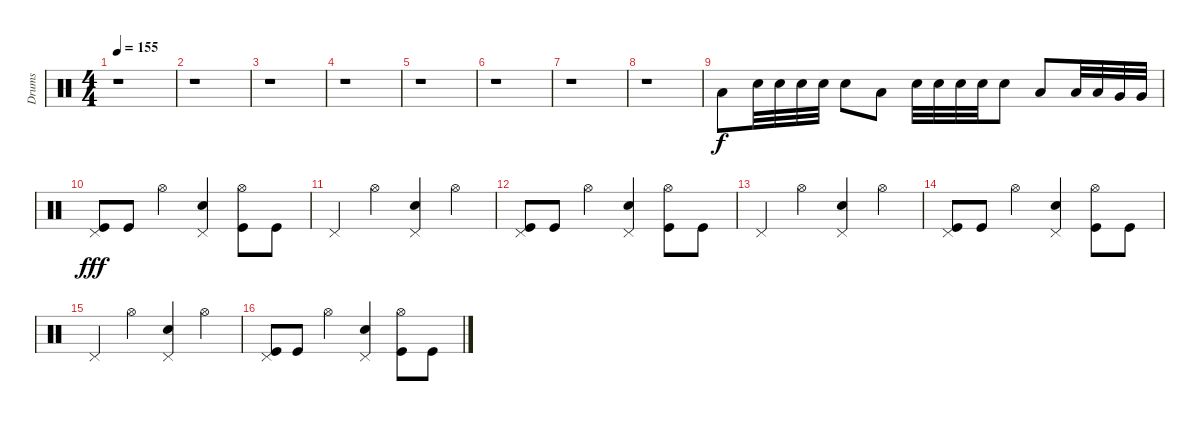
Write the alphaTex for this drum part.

\track ("Drums               " "Drums     ") {instrument percussion}
\staff {score}
\articulation defaults
\ts (4 4)
\tempo 155
\clef neutral
\ks c
r.1{dy f} |
r.1 |
r.1 |
r.1 |
r.1 |
r.1 |
r.1 |
r.1 |
"Low Tom (hit)".8 "Snare (hit) 2".32 "Snare (hit) 2".32 "Snare (hit) 2".32 "Snare (hit) 2".32 "Snare (hit) 2".8 "Low Tom (hit)".8 "Snare (hit) 2".32 "Snare (hit) 2".32 "Snare (hit) 2".32 "Snare (hit) 2".32 "Snare (hit) 2".8 "Low Tom (hit)".8 "Low Tom (hit)".32 "Low Tom (hit)".32 "Very Low Tom (hit)".32 "Very Low Tom (hit)".32 |
("Kick (hit)" "Pedal Hi-Hat (hit)").8{dy fff} "Kick (hit)".8 "Hi-Hat (open)".4 ("Snare (hit) 2" "Pedal Hi-Hat (hit)").4 ("Kick (hit)" "Hi-Hat (open)").8 "Kick (hit)".8 |
"Pedal Hi-Hat (hit)".4 "Hi-Hat (open)".4 ("Pedal Hi-Hat (hit)" "Snare (hit) 2").4 "Hi-Hat (open)".4 |
("Kick (hit)" "Pedal Hi-Hat (hit)").8 "Kick (hit)".8 "Hi-Hat (open)".4 ("Snare (hit) 2" "Pedal Hi-Hat (hit)").4 ("Kick (hit)" "Hi-Hat (open)").8 "Kick (hit)".8 |
"Pedal Hi-Hat (hit)".4 "Hi-Hat (open)".4 ("Pedal Hi-Hat (hit)" "Snare (hit) 2").4 "Hi-Hat (open)".4 |
("Kick (hit)" "Pedal Hi-Hat (hit)").8 "Kick (hit)".8 "Hi-Hat (open)".4 ("Snare (hit) 2" "Pedal Hi-Hat (hit)").4 ("Kick (hit)" "Hi-Hat (open)").8 "Kick (hit)".8 |
"Pedal Hi-Hat (hit)".4 "Hi-Hat (open)".4 ("Pedal Hi-Hat (hit)" "Snare (hit) 2").4 "Hi-Hat (open)".4 |
("Kick (hit)" "Pedal Hi-Hat (hit)").8 "Kick (hit)".8 "Hi-Hat (open)".4 ("Snare (hit) 2" "Pedal Hi-Hat (hit)").4 ("Kick (hit)" "Hi-Hat (open)").8 "Kick (hit)".8
